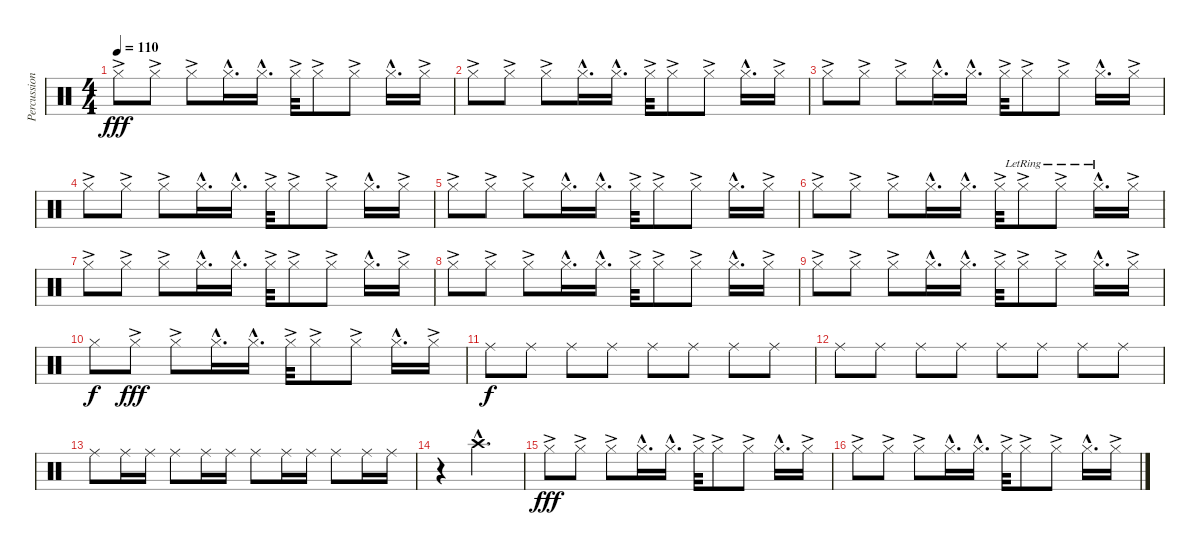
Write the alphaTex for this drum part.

\track ("Percussion" "Percussion") {instrument percussion}
\staff {score}
\articulation defaults
\ts (4 4)
\tempo 110
\clef neutral
\ks c "Hi-Hat (closed)"{ac}.8{dy fff} "Hi-Hat (closed)"{ac}.8 "Hi-Hat (closed)"{ac}.8 "Hi-Hat (closed)"{hac}.16{d} "Hi-Hat (closed)"{hac}.16{d} "Hi-Hat (closed)"{ac}.32 "Hi-Hat (closed)"{ac}.8 "Hi-Hat (closed)"{ac}.8 "Hi-Hat (closed)"{hac}.16{d} "Hi-Hat (closed)"{ac}.16
|
"Hi-Hat (closed)"{ac}.8 "Hi-Hat (closed)"{ac}.8 "Hi-Hat (closed)"{ac}.8 "Hi-Hat (closed)"{hac}.16{d} "Hi-Hat (closed)"{hac}.16{d} "Hi-Hat (closed)"{ac}.32 "Hi-Hat (closed)"{ac}.8 "Hi-Hat (closed)"{ac}.8 "Hi-Hat (closed)"{hac}.16{d} "Hi-Hat (closed)"{ac}.16 |
"Hi-Hat (closed)"{ac}.8 "Hi-Hat (closed)"{ac}.8 "Hi-Hat (closed)"{ac}.8 "Hi-Hat (closed)"{hac}.16{d} "Hi-Hat (closed)"{hac}.16{d} "Hi-Hat (closed)"{ac}.32 "Hi-Hat (closed)"{ac}.8 "Hi-Hat (closed)"{ac}.8 "Hi-Hat (closed)"{hac}.16{d} "Hi-Hat (closed)"{ac}.16 |
"Hi-Hat (closed)"{ac}.8 "Hi-Hat (closed)"{ac}.8 "Hi-Hat (closed)"{ac}.8 "Hi-Hat (closed)"{hac}.16{d} "Hi-Hat (closed)"{hac}.16{d} "Hi-Hat (closed)"{ac}.32 "Hi-Hat (closed)"{ac}.8 "Hi-Hat (closed)"{ac}.8 "Hi-Hat (closed)"{hac}.16{d} "Hi-Hat (closed)"{ac}.16 |
"Hi-Hat (closed)"{ac}.8 "Hi-Hat (closed)"{ac}.8 "Hi-Hat (closed)"{ac}.8 "Hi-Hat (closed)"{hac}.16{d} "Hi-Hat (closed)"{hac}.16{d} "Hi-Hat (closed)"{ac}.32 "Hi-Hat (closed)"{ac}.8 "Hi-Hat (closed)"{ac}.8 "Hi-Hat (closed)"{hac}.16{d} "Hi-Hat (closed)"{ac}.16 |
"Hi-Hat (closed)"{ac}.8 "Hi-Hat (closed)"{ac}.8 "Hi-Hat (closed)"{ac}.8 "Hi-Hat (closed)"{hac}.16{d} "Hi-Hat (closed)"{hac}.16{d} "Hi-Hat (closed)"{ac}.32 "Hi-Hat (closed)"{ac lr}.8 "Hi-Hat (closed)"{ac lr}.8 "Hi-Hat (closed)"{hac lr}.16{d} "Hi-Hat (closed)"{ac}.16 |
"Hi-Hat (closed)"{ac}.8 "Hi-Hat (closed)"{ac}.8 "Hi-Hat (closed)"{ac}.8 "Hi-Hat (closed)"{hac}.16{d} "Hi-Hat (closed)"{hac}.16{d} "Hi-Hat (closed)"{ac}.32 "Hi-Hat (closed)"{ac}.8 "Hi-Hat (closed)"{ac}.8 "Hi-Hat (closed)"{hac}.16{d} "Hi-Hat (closed)"{ac}.16 |
"Hi-Hat (closed)"{ac}.8 "Hi-Hat (closed)"{ac}.8 "Hi-Hat (closed)"{ac}.8 "Hi-Hat (closed)"{hac}.16{d} "Hi-Hat (closed)"{hac}.16{d} "Hi-Hat (closed)"{ac}.32 "Hi-Hat (closed)"{ac}.8 "Hi-Hat (closed)"{ac}.8 "Hi-Hat (closed)"{hac}.16{d} "Hi-Hat (closed)"{ac}.16 |
"Hi-Hat (closed)"{ac}.8 "Hi-Hat (closed)"{ac}.8 "Hi-Hat (closed)"{ac}.8 "Hi-Hat (closed)"{hac}.16{d} "Hi-Hat (closed)"{hac}.16{d} "Hi-Hat (closed)"{ac}.32 "Hi-Hat (closed)"{ac}.8 "Hi-Hat (closed)"{ac}.8 "Hi-Hat (closed)"{hac}.16{d} "Hi-Hat (closed)"{ac}.16 |
"Hi-Hat (closed)".8{dy f} "Hi-Hat (closed)"{ac}.8{dy fff} "Hi-Hat (closed)"{ac}.8 "Hi-Hat (closed)"{hac}.16{d} "Hi-Hat (closed)"{hac}.16{d} "Hi-Hat (closed)"{ac}.32 "Hi-Hat (closed)"{ac}.8 "Hi-Hat (closed)"{ac}.8 "Hi-Hat (closed)"{hac}.16{d} "Hi-Hat (closed)"{ac}.16 |
"Ride (middle)".8{dy f} "Ride (middle)".8 "Ride (middle)".8 "Ride (middle)".8 "Ride (middle)".8 "Ride (middle)".8 "Ride (middle)".8 "Ride (middle)".8 |
"Ride (middle)".8 "Ride (middle)".8 "Ride (middle)".8 "Ride (middle)".8 "Ride (middle)".8 "Ride (middle)".8 "Ride (middle)".8 "Ride (middle)".8 |
"Ride (middle)".8 "Ride (middle)".16 "Ride (middle)".16 "Ride (middle)".8 "Ride (middle)".16 "Ride (middle)".16 "Ride (middle)".8 "Ride (middle)".16 "Ride (middle)".16 "Ride (middle)".8 "Ride (middle)".16 "Ride (middle)".16 |
r.4 "Crash high (hit)"{hac}.2{d} |
"Hi-Hat (closed)"{ac}.8{dy fff} "Hi-Hat (closed)"{ac}.8 "Hi-Hat (closed)"{ac}.8 "Hi-Hat (closed)"{hac}.16{d} "Hi-Hat (closed)"{hac}.16{d} "Hi-Hat (closed)"{ac}.32 "Hi-Hat (closed)"{ac}.8 "Hi-Hat (closed)"{ac}.8 "Hi-Hat (closed)"{hac}.16{d} "Hi-Hat (closed)"{ac}.16 |
"Hi-Hat (closed)"{ac}.8 "Hi-Hat (closed)"{ac}.8 "Hi-Hat (closed)"{ac}.8 "Hi-Hat (closed)"{hac}.16{d} "Hi-Hat (closed)"{hac}.16{d} "Hi-Hat (closed)"{ac}.32 "Hi-Hat (closed)"{ac}.8 "Hi-Hat (closed)"{ac}.8 "Hi-Hat (closed)"{hac}.16{d} "Hi-Hat (closed)"{ac}.16
